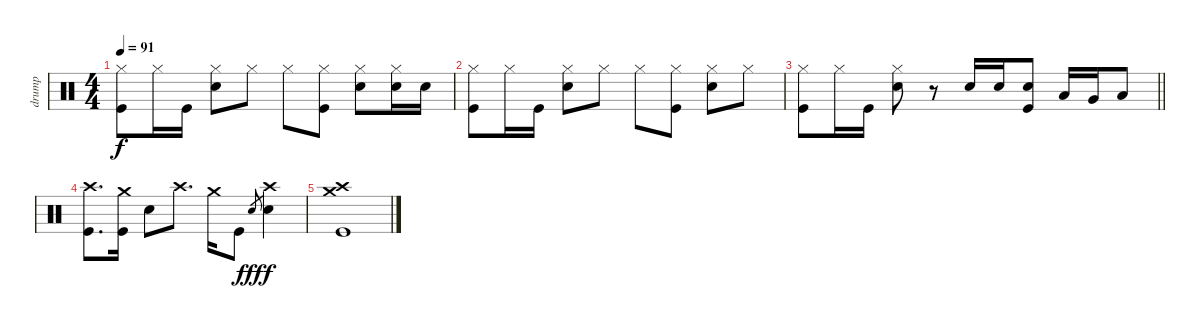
\track ("drump" "drump") {instrument percussion}
\staff {score}
\articulation defaults
\ts (4 4)
\tempo 91
\clef neutral
\ks c
("Kick (hit)" "Hi-Hat (closed)").8{dy f} "Hi-Hat (closed)".16 "Kick (hit)".16 ("Snare (hit) 2" "Hi-Hat (closed)").8 "Hi-Hat (closed)".8 "Hi-Hat (closed)".8 ("Kick (hit)" "Hi-Hat (closed)").8 ("Snare (hit) 2" "Hi-Hat (closed)").8 ("Snare (hit) 2" "Hi-Hat (closed)").16 "Snare (hit) 2".16 |
("Kick (hit)" "Hi-Hat (closed)").8 "Hi-Hat (closed)".16 "Kick (hit)".16 ("Snare (hit) 2" "Hi-Hat (closed)").8 "Hi-Hat (closed)".8 "Hi-Hat (closed)".8 ("Kick (hit)" "Hi-Hat (closed)").8 ("Snare (hit) 2" "Hi-Hat (closed)").8 "Hi-Hat (closed)".8 |
\barLineRight lightlight
("Kick (hit)" "Hi-Hat (closed)").8 "Hi-Hat (closed)".16 "Kick (hit)".16 ("Snare (hit) 2" "Hi-Hat (closed)").8 r.8 "Snare (hit) 2".16 "Snare (hit) 2".16 ("Snare (hit) 2" "Kick (hit)").8 "Low Tom (hit)".16 "Very Low Tom (hit)".16 "Low Floor Tom (hit)".8 |
("Kick (hit)" "Crash high (hit)").8{d} ("Kick (hit)" "Crash medium (hit)").16 "Snare (hit) 2".8 "Crash high (hit)".8{d} "Crash medium (hit)".16 "Kick (hit)".8 "Snare (hit) 2".8{gr dy fff} ("Snare (hit) 2" "Crash high (hit)").4{dy f} |
("Kick (hit)" "Crash high (hit)" "Crash medium (hit)").1
